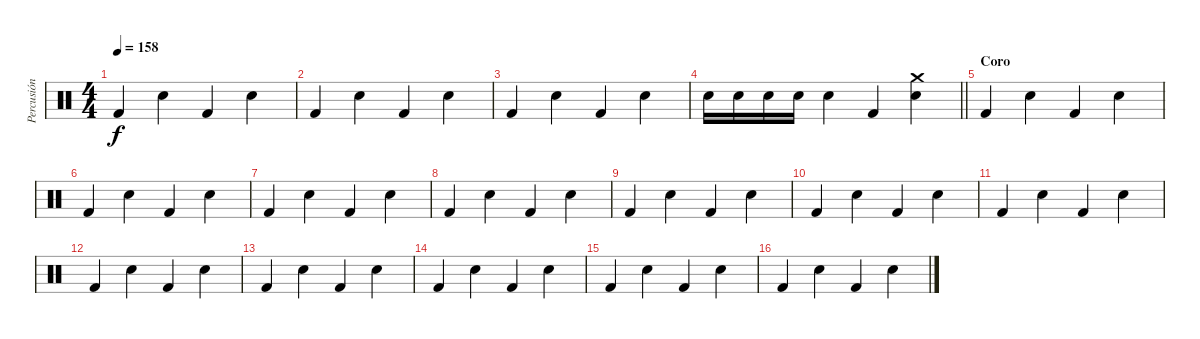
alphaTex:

\track ("Percusión" "Percusión") {instrument percussion}
\staff {score}
\articulation defaults
\ts (4 4)
\tempo 158
\clef neutral
\ks c "Kick (hit) 2".4{dy f volume 16} "Electric Snare (hit)".4 "Kick (hit) 2".4 "Electric Snare (hit)".4
|
"Kick (hit) 2".4 "Electric Snare (hit)".4 "Kick (hit) 2".4 "Electric Snare (hit)".4 |
"Kick (hit) 2".4{volume 16} "Electric Snare (hit)".4 "Kick (hit) 2".4 "Electric Snare (hit)".4 |
\barLineRight lightlight "Electric Snare (hit)".16 "Electric Snare (hit)".16 "Electric Snare (hit)".16 "Electric Snare (hit)".16 "Electric Snare (hit)".4 "Kick (hit) 2".4
("Crash medium (hit)" "Electric Snare (hit)").4 |
\section ("" "Coro")
"Kick (hit) 2".4{volume 16} "Electric Snare (hit)".4 "Kick (hit) 2".4 "Electric Snare (hit)".4 |
"Kick (hit) 2".4 "Electric Snare (hit)".4 "Kick (hit) 2".4 "Electric Snare (hit)".4 |
"Kick (hit) 2".4{volume 16} "Electric Snare (hit)".4 "Kick (hit) 2".4 "Electric Snare (hit)".4 |
"Kick (hit) 2".4 "Electric Snare (hit)".4 "Kick (hit) 2".4 "Electric Snare (hit)".4 |
"Kick (hit) 2".4{volume 16} "Electric Snare (hit)".4 "Kick (hit) 2".4 "Electric Snare (hit)".4 |
"Kick (hit) 2".4 "Electric Snare (hit)".4 "Kick (hit) 2".4 "Electric Snare (hit)".4 |
"Kick (hit) 2".4{volume 16} "Electric Snare (hit)".4 "Kick (hit) 2".4 "Electric Snare (hit)".4 |
"Kick (hit) 2".4 "Electric Snare (hit)".4 "Kick (hit) 2".4 "Electric Snare (hit)".4 |
"Kick (hit) 2".4{volume 16} "Electric Snare (hit)".4 "Kick (hit) 2".4 "Electric Snare (hit)".4 |
"Kick (hit) 2".4 "Electric Snare (hit)".4 "Kick (hit) 2".4 "Electric Snare (hit)".4 |
"Kick (hit) 2".4{volume 16} "Electric Snare (hit)".4 "Kick (hit) 2".4 "Electric Snare (hit)".4 |
"Kick (hit) 2".4 "Electric Snare (hit)".4 "Kick (hit) 2".4 "Electric Snare (hit)".4
